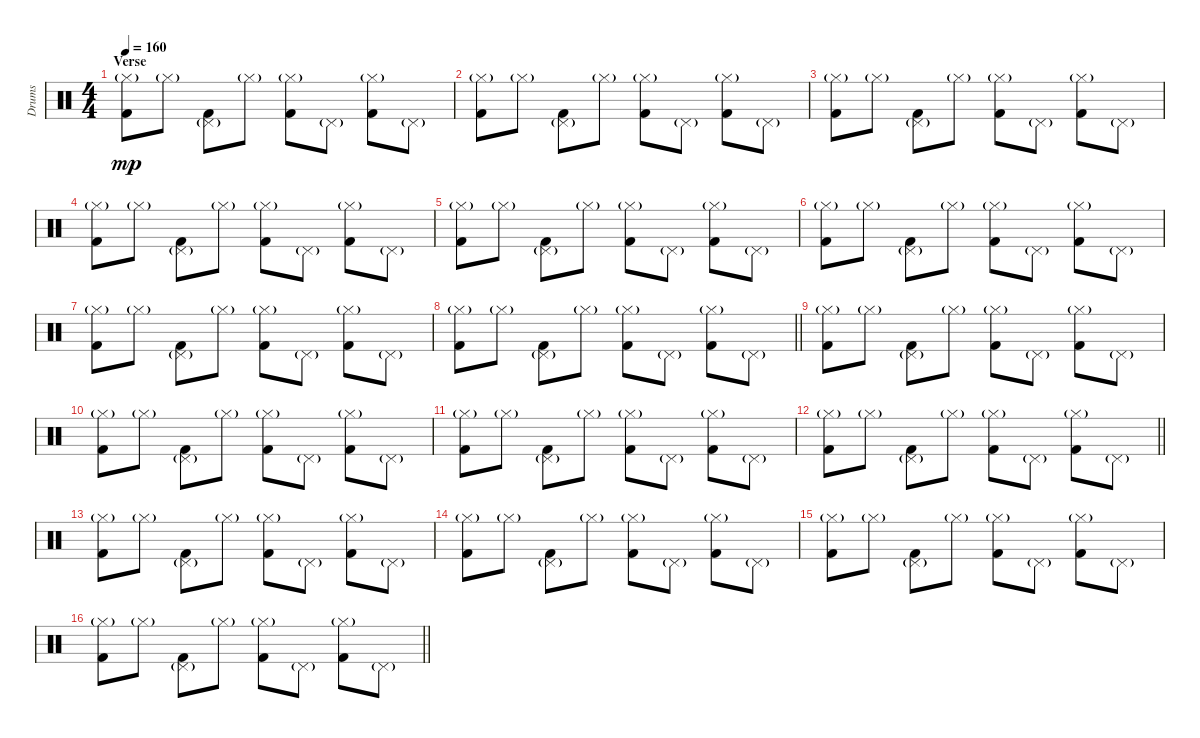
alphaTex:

\track ("Drums" "Drums") {instrument percussion}
\staff {score}
\articulation defaults
\ts (4 4)
\section ("" "Verse")
\tempo 160
\clef neutral
\ks c
("Hi-Hat (closed)"{g} "Kick (hit) 2").8{dy mp} "Hi-Hat (closed)"{g}.8 ("Pedal Hi-Hat (hit)"{g} "Kick (hit) 2").8 "Hi-Hat (closed)"{g}.8 ("Hi-Hat (closed)"{g} "Kick (hit) 2").8 "Pedal Hi-Hat (hit)"{g}.8 ("Hi-Hat (closed)"{g} "Kick (hit) 2").8 "Pedal Hi-Hat (hit)"{g}.8 |
("Hi-Hat (closed)"{g} "Kick (hit) 2").8 "Hi-Hat (closed)"{g}.8 ("Pedal Hi-Hat (hit)"{g} "Kick (hit) 2").8 "Hi-Hat (closed)"{g}.8 ("Hi-Hat (closed)"{g} "Kick (hit) 2").8 "Pedal Hi-Hat (hit)"{g}.8 ("Hi-Hat (closed)"{g} "Kick (hit) 2").8 "Pedal Hi-Hat (hit)"{g}.8 |
("Hi-Hat (closed)"{g} "Kick (hit) 2").8 "Hi-Hat (closed)"{g}.8 ("Pedal Hi-Hat (hit)"{g} "Kick (hit) 2").8 "Hi-Hat (closed)"{g}.8 ("Hi-Hat (closed)"{g} "Kick (hit) 2").8 "Pedal Hi-Hat (hit)"{g}.8 ("Hi-Hat (closed)"{g} "Kick (hit) 2").8 "Pedal Hi-Hat (hit)"{g}.8 |
("Hi-Hat (closed)"{g} "Kick (hit) 2").8 "Hi-Hat (closed)"{g}.8 ("Pedal Hi-Hat (hit)"{g} "Kick (hit) 2").8 "Hi-Hat (closed)"{g}.8 ("Hi-Hat (closed)"{g} "Kick (hit) 2").8 "Pedal Hi-Hat (hit)"{g}.8 ("Hi-Hat (closed)"{g} "Kick (hit) 2").8 "Pedal Hi-Hat (hit)"{g}.8 |
("Hi-Hat (closed)"{g} "Kick (hit) 2").8 "Hi-Hat (closed)"{g}.8 ("Pedal Hi-Hat (hit)"{g} "Kick (hit) 2").8 "Hi-Hat (closed)"{g}.8 ("Hi-Hat (closed)"{g} "Kick (hit) 2").8 "Pedal Hi-Hat (hit)"{g}.8 ("Hi-Hat (closed)"{g} "Kick (hit) 2").8 "Pedal Hi-Hat (hit)"{g}.8 |
("Hi-Hat (closed)"{g} "Kick (hit) 2").8 "Hi-Hat (closed)"{g}.8 ("Pedal Hi-Hat (hit)"{g} "Kick (hit) 2").8 "Hi-Hat (closed)"{g}.8 ("Hi-Hat (closed)"{g} "Kick (hit) 2").8 "Pedal Hi-Hat (hit)"{g}.8 ("Hi-Hat (closed)"{g} "Kick (hit) 2").8 "Pedal Hi-Hat (hit)"{g}.8 |
("Hi-Hat (closed)"{g} "Kick (hit) 2").8 "Hi-Hat (closed)"{g}.8 ("Pedal Hi-Hat (hit)"{g} "Kick (hit) 2").8 "Hi-Hat (closed)"{g}.8 ("Hi-Hat (closed)"{g} "Kick (hit) 2").8 "Pedal Hi-Hat (hit)"{g}.8 ("Hi-Hat (closed)"{g} "Kick (hit) 2").8 "Pedal Hi-Hat (hit)"{g}.8 |
\barLineRight lightlight
("Hi-Hat (closed)"{g} "Kick (hit) 2").8 "Hi-Hat (closed)"{g}.8 ("Pedal Hi-Hat (hit)"{g} "Kick (hit) 2").8 "Hi-Hat (closed)"{g}.8 ("Hi-Hat (closed)"{g} "Kick (hit) 2").8 "Pedal Hi-Hat (hit)"{g}.8 ("Hi-Hat (closed)"{g} "Kick (hit) 2").8 "Pedal Hi-Hat (hit)"{g}.8 |
("Hi-Hat (closed)"{g} "Kick (hit) 2").8 "Hi-Hat (closed)"{g}.8 ("Pedal Hi-Hat (hit)"{g} "Kick (hit) 2").8 "Hi-Hat (closed)"{g}.8 ("Hi-Hat (closed)"{g} "Kick (hit) 2").8 "Pedal Hi-Hat (hit)"{g}.8 ("Hi-Hat (closed)"{g} "Kick (hit) 2").8 "Pedal Hi-Hat (hit)"{g}.8 |
("Hi-Hat (closed)"{g} "Kick (hit) 2").8 "Hi-Hat (closed)"{g}.8 ("Pedal Hi-Hat (hit)"{g} "Kick (hit) 2").8 "Hi-Hat (closed)"{g}.8 ("Hi-Hat (closed)"{g} "Kick (hit) 2").8 "Pedal Hi-Hat (hit)"{g}.8 ("Hi-Hat (closed)"{g} "Kick (hit) 2").8 "Pedal Hi-Hat (hit)"{g}.8 |
("Hi-Hat (closed)"{g} "Kick (hit) 2").8 "Hi-Hat (closed)"{g}.8 ("Pedal Hi-Hat (hit)"{g} "Kick (hit) 2").8 "Hi-Hat (closed)"{g}.8 ("Hi-Hat (closed)"{g} "Kick (hit) 2").8 "Pedal Hi-Hat (hit)"{g}.8 ("Hi-Hat (closed)"{g} "Kick (hit) 2").8 "Pedal Hi-Hat (hit)"{g}.8 |
\barLineRight lightlight
("Hi-Hat (closed)"{g} "Kick (hit) 2").8 "Hi-Hat (closed)"{g}.8 ("Pedal Hi-Hat (hit)"{g} "Kick (hit) 2").8 "Hi-Hat (closed)"{g}.8 ("Hi-Hat (closed)"{g} "Kick (hit) 2").8 "Pedal Hi-Hat (hit)"{g}.8 ("Hi-Hat (closed)"{g} "Kick (hit) 2").8 "Pedal Hi-Hat (hit)"{g}.8 |
("Hi-Hat (closed)"{g} "Kick (hit) 2").8 "Hi-Hat (closed)"{g}.8 ("Pedal Hi-Hat (hit)"{g} "Kick (hit) 2").8 "Hi-Hat (closed)"{g}.8 ("Hi-Hat (closed)"{g} "Kick (hit) 2").8 "Pedal Hi-Hat (hit)"{g}.8 ("Hi-Hat (closed)"{g} "Kick (hit) 2").8 "Pedal Hi-Hat (hit)"{g}.8 |
("Hi-Hat (closed)"{g} "Kick (hit) 2").8 "Hi-Hat (closed)"{g}.8 ("Pedal Hi-Hat (hit)"{g} "Kick (hit) 2").8 "Hi-Hat (closed)"{g}.8 ("Hi-Hat (closed)"{g} "Kick (hit) 2").8 "Pedal Hi-Hat (hit)"{g}.8 ("Hi-Hat (closed)"{g} "Kick (hit) 2").8 "Pedal Hi-Hat (hit)"{g}.8 |
("Hi-Hat (closed)"{g} "Kick (hit) 2").8 "Hi-Hat (closed)"{g}.8 ("Pedal Hi-Hat (hit)"{g} "Kick (hit) 2").8 "Hi-Hat (closed)"{g}.8 ("Hi-Hat (closed)"{g} "Kick (hit) 2").8 "Pedal Hi-Hat (hit)"{g}.8 ("Hi-Hat (closed)"{g} "Kick (hit) 2").8 "Pedal Hi-Hat (hit)"{g}.8 |
\barLineRight lightlight
("Hi-Hat (closed)"{g} "Kick (hit) 2").8 "Hi-Hat (closed)"{g}.8 ("Pedal Hi-Hat (hit)"{g} "Kick (hit) 2").8 "Hi-Hat (closed)"{g}.8 ("Hi-Hat (closed)"{g} "Kick (hit) 2").8 "Pedal Hi-Hat (hit)"{g}.8 ("Hi-Hat (closed)"{g} "Kick (hit) 2").8 "Pedal Hi-Hat (hit)"{g}.8
